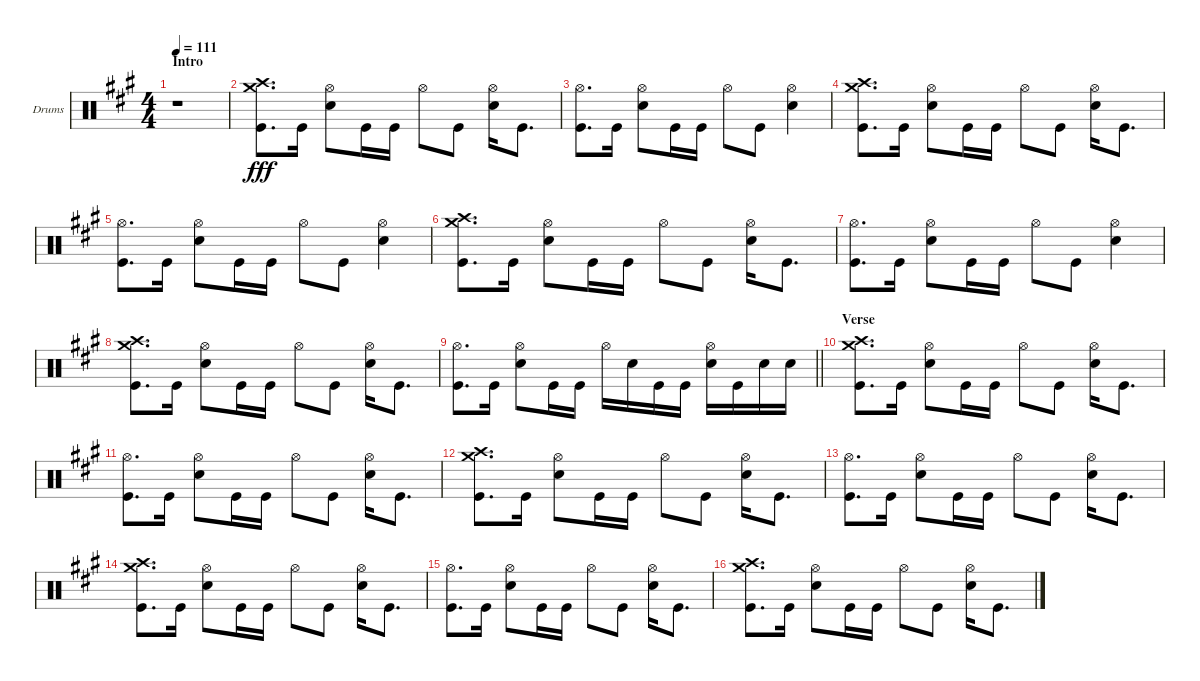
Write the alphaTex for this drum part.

\bracketExtendMode groupsimilarinstruments
\firstSystemTrackNameOrientation horizontal
\otherSystemsTrackNameOrientation horizontal
\track ("Drumkit" "Drums") {instrument percussion}
\staff {score}
\articulation defaults
\ts (4 4)
\beaming (8 2 2 2 2)
\section ("" "Intro")
\tempo 111
\clef neutral
\scale
0.262295
\ks a
r.1{dy fff} |
\scale
0.379098 ("Crash high (hit)" "Crash medium (hit)" "Kick (hit)").8{d} "Kick (hit)".16 ("Hi-Hat (open)" "Snare (hit) 2").8 "Kick (hit)".16 "Kick (hit)".16 "Hi-Hat (open)".8 "Kick (hit)".8 ("Hi-Hat (open)" "Snare (hit) 2").16 "Kick (hit)".8{d} |
\scale
0.358607 ("Hi-Hat (open)" "Kick (hit)").8{d} "Kick (hit)".16 ("Hi-Hat (open)" "Snare (hit) 2").8 "Kick (hit)".16 "Kick (hit)".16 "Hi-Hat (open)".8 "Kick (hit)".8 ("Hi-Hat (open)" "Snare (hit) 2").4 |
\scale
0.33945 ("Crash high (hit)" "Crash medium (hit)" "Kick (hit)").8{d} "Kick (hit)".16 ("Hi-Hat (open)" "Snare (hit) 2").8 "Kick (hit)".16 "Kick (hit)".16 "Hi-Hat (open)".8 "Kick (hit)".8 ("Hi-Hat (open)" "Snare (hit) 2").16 "Kick (hit)".8{d} |
\scale
0.321101 ("Hi-Hat (open)" "Kick (hit)").8{d} "Kick (hit)".16 ("Hi-Hat (open)" "Snare (hit) 2").8 "Kick (hit)".16 "Kick (hit)".16 "Hi-Hat (open)".8 "Kick (hit)".8 ("Hi-Hat (open)" "Snare (hit) 2").4 |
\scale
0.33945 ("Crash high (hit)" "Crash medium (hit)" "Kick (hit)").8{d} "Kick (hit)".16 ("Hi-Hat (open)" "Snare (hit) 2").8 "Kick (hit)".16 "Kick (hit)".16 "Hi-Hat (open)".8 "Kick (hit)".8 ("Hi-Hat (open)" "Snare (hit) 2").16 "Kick (hit)".8{d} |
\scale
0.301205 ("Hi-Hat (open)" "Kick (hit)").8{d} "Kick (hit)".16 ("Hi-Hat (open)" "Snare (hit) 2").8 "Kick (hit)".16 "Kick (hit)".16 "Hi-Hat (open)".8 "Kick (hit)".8 ("Hi-Hat (open)" "Snare (hit) 2").4 |
\scale
0.318417 ("Crash high (hit)" "Crash medium (hit)" "Kick (hit)").8{d} "Kick (hit)".16 ("Hi-Hat (open)" "Snare (hit) 2").8 "Kick (hit)".16 "Kick (hit)".16 "Hi-Hat (open)".8 "Kick (hit)".8 ("Hi-Hat (open)" "Snare (hit) 2").16 "Kick (hit)".8{d} |
\scale
0.380379
\barLineRight lightlight
("Hi-Hat (open)" "Kick (hit)").8{d} "Kick (hit)".16 ("Hi-Hat (open)" "Snare (hit) 2").8 "Kick (hit)".16 "Kick (hit)".16 "Hi-Hat (open)".16 "Snare (hit) 2".16 "Kick (hit)".16 "Kick (hit)".16 ("Snare (hit) 2" "Hi-Hat (open)").16 "Kick (hit)".16 "Snare (hit) 2".16 "Snare (hit) 2".16 |
\section ("" "Verse")
\scale
0.333333 ("Crash high (hit)" "Crash medium (hit)" "Kick (hit)").8{d} "Kick (hit)".16 ("Hi-Hat (open)" "Snare (hit) 2").8 "Kick (hit)".16 "Kick (hit)".16 "Hi-Hat (open)".8 "Kick (hit)".8 ("Hi-Hat (open)" "Snare (hit) 2").16 "Kick (hit)".8{d} |
\scale
0.333333 ("Hi-Hat (open)" "Kick (hit)").8{d} "Kick (hit)".16 ("Hi-Hat (open)" "Snare (hit) 2").8 "Kick (hit)".16 "Kick (hit)".16 "Hi-Hat (open)".8 "Kick (hit)".8 ("Hi-Hat (open)" "Snare (hit) 2").16 "Kick (hit)".8{d} |
\scale
0.333333 ("Crash high (hit)" "Crash medium (hit)" "Kick (hit)").8{d} "Kick (hit)".16 ("Hi-Hat (open)" "Snare (hit) 2").8 "Kick (hit)".16 "Kick (hit)".16 "Hi-Hat (open)".8 "Kick (hit)".8 ("Hi-Hat (open)" "Snare (hit) 2").16 "Kick (hit)".8{d} |
\scale
0.333333 ("Hi-Hat (open)" "Kick (hit)").8{d} "Kick (hit)".16 ("Hi-Hat (open)" "Snare (hit) 2").8 "Kick (hit)".16 "Kick (hit)".16 "Hi-Hat (open)".8 "Kick (hit)".8 ("Hi-Hat (open)" "Snare (hit) 2").16 "Kick (hit)".8{d} |
\scale
0.333333 ("Crash high (hit)" "Crash medium (hit)" "Kick (hit)").8{d} "Kick (hit)".16 ("Hi-Hat (open)" "Snare (hit) 2").8 "Kick (hit)".16 "Kick (hit)".16 "Hi-Hat (open)".8 "Kick (hit)".8 ("Hi-Hat (open)" "Snare (hit) 2").16 "Kick (hit)".8{d} |
\scale
0.333333 ("Hi-Hat (open)" "Kick (hit)").8{d} "Kick (hit)".16 ("Hi-Hat (open)" "Snare (hit) 2").8 "Kick (hit)".16 "Kick (hit)".16 "Hi-Hat (open)".8 "Kick (hit)".8 ("Hi-Hat (open)" "Snare (hit) 2").16 "Kick (hit)".8{d} |
\scale
0.322862 ("Crash high (hit)" "Crash medium (hit)" "Kick (hit)").8{d} "Kick (hit)".16 ("Hi-Hat (open)" "Snare (hit) 2").8 "Kick (hit)".16 "Kick (hit)".16 "Hi-Hat (open)".8 "Kick (hit)".8 ("Hi-Hat (open)" "Snare (hit) 2").16 "Kick (hit)".8{d}
